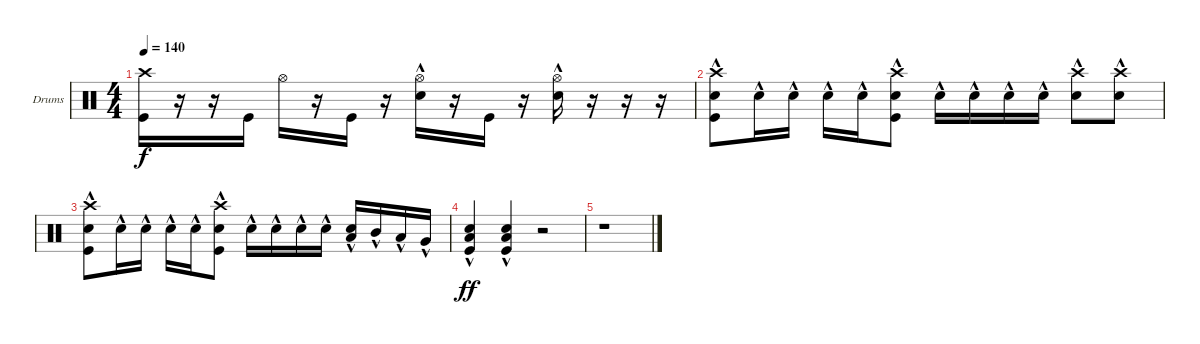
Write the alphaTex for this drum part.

\defaultSystemsLayout 4
\bracketExtendMode groupsimilarinstruments
\firstSystemTrackNameOrientation horizontal
\otherSystemsTrackNameOrientation horizontal
\track ("Drumkit - Paul" "Drums") {instrument percussion}
\staff {score}
\articulation defaults
\ts (4 4)
\tempo 140
\clef neutral
\ks c
("Crash high (hit)" "Kick (hit)").16{dy f} r.16 r.16 "Kick (hit)".16 "Hi-Hat (open)".16 r.16 "Kick (hit)".16 r.16 ("Snare (hit) 2"{hac} "Hi-Hat (open)").16 r.16 "Kick (hit)".16 r.16 ("Hi-Hat (open)" "Snare (hit) 2"{hac}).16 r.16 r.16 r.16 |
("Crash high (hit)" "Snare (hit) 2"{hac} "Kick (hit)").8 "Snare (hit) 2"{hac}.16 "Snare (hit) 2"{hac}.16 "Snare (hit) 2"{hac}.16 "Snare (hit) 2"{hac}.16 ("Snare (hit) 2"{hac} "Kick (hit)" "Crash high (hit)").8 "Snare (hit) 2"{hac}.16 "Snare (hit) 2"{hac}.16 "Snare (hit) 2"{hac}.16 "Snare (hit) 2"{hac}.16 ("Snare (hit) 2"{hac} "Crash high (hit)").8 ("Snare (hit) 2"{hac} "Crash high (hit)").8 |
("Snare (hit) 2"{hac} "Kick (hit)" "Crash high (hit)").8 "Snare (hit) 2"{hac}.16 "Snare (hit) 2"{hac}.16 "Snare (hit) 2"{hac}.16 "Snare (hit) 2"{hac}.16 ("Snare (hit) 2"{hac} "Kick (hit)" "Crash high (hit)").8 "Snare (hit) 2"{hac}.16 "Snare (hit) 2"{hac}.16 "Snare (hit) 2"{hac}.16 "Snare (hit) 2"{hac}.16 ("Snare (hit) 2"{hac} "Low Tom (hit)"{hac}).16 "Mid Tom (hit)"{hac}.16 "Low Tom (hit)"{hac}.16 "Very Low Tom (hit)"{hac}.16 |
("Kick (hit)"{hac} "Snare (hit) 2"{hac} "Low Tom (hit)"{hac}).4{dy ff} ("Snare (hit) 2"{hac} "Low Tom (hit)"{hac} "Kick (hit)"{hac}).4 r.2 |
r.1
